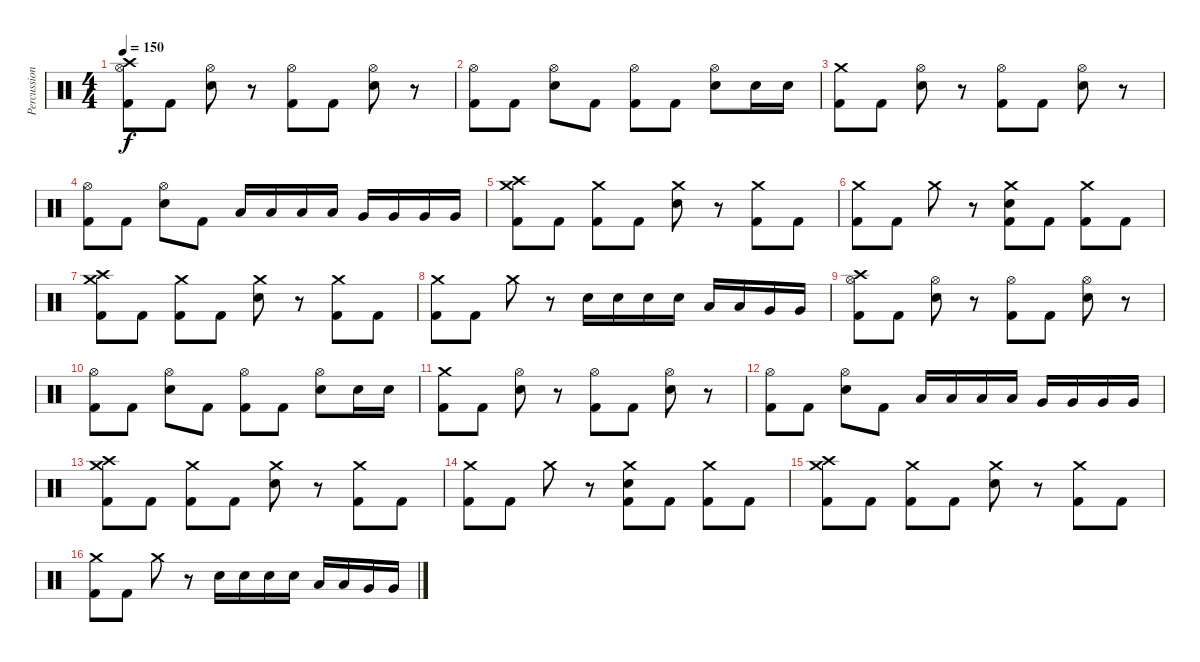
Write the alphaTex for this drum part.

\track ("Percussion" "Percussion") {instrument percussion}
\staff {score}
\articulation defaults
\ts (4 4)
\tempo 150
\clef neutral
\ks c
("Crash high (hit)" "Hi-Hat (open)" "Kick (hit) 2").8{dy f} "Kick (hit) 2".8 ("Hi-Hat (open)" "Electric Snare (hit)").8 r.8 ("Hi-Hat (open)" "Kick (hit) 2").8 "Kick (hit) 2".8 ("Hi-Hat (open)" "Electric Snare (hit)").8 r.8 |
("Hi-Hat (open)" "Kick (hit) 2").8 "Kick (hit) 2".8 ("Hi-Hat (open)" "Electric Snare (hit)").8 "Kick (hit) 2".8 ("Hi-Hat (open)" "Kick (hit) 2").8 "Kick (hit) 2".8 ("Hi-Hat (open)" "Electric Snare (hit)").8 "Electric Snare (hit)".16 "Electric Snare (hit)".16 |
("Crash medium (hit)" "Kick (hit) 2").8 "Kick (hit) 2".8 ("Hi-Hat (open)" "Electric Snare (hit)").8 r.8 ("Hi-Hat (open)" "Kick (hit) 2").8 "Kick (hit) 2".8 ("Hi-Hat (open)" "Electric Snare (hit)").8 r.8 |
("Hi-Hat (open)" "Kick (hit) 2").8 "Kick (hit) 2".8 ("Hi-Hat (open)" "Electric Snare (hit)").8 "Kick (hit) 2".8 "Low Tom (hit)".16 "Low Tom (hit)".16 "Low Tom (hit)".16 "Low Tom (hit)".16 "Very Low Tom (hit)".16 "Very Low Tom (hit)".16 "Very Low Tom (hit)".16 "Very Low Tom (hit)".16 |
("Crash medium (hit)" "Crash high (hit)" "Kick (hit) 2").8 "Kick (hit) 2".8 ("Crash medium (hit)" "Kick (hit) 2").8 "Kick (hit) 2".8 ("Crash medium (hit)" "Electric Snare (hit)").8 r.8 ("Crash medium (hit)" "Kick (hit) 2").8 "Kick (hit) 2".8 |
("Crash medium (hit)" "Kick (hit) 2").8 "Kick (hit) 2".8 "Crash medium (hit)".8 r.8 ("Crash medium (hit)" "Electric Snare (hit)" "Kick (hit) 2").8 "Kick (hit) 2".8 ("Crash medium (hit)" "Kick (hit) 2").8 "Kick (hit) 2".8 |
("Crash medium (hit)" "Crash high (hit)" "Kick (hit) 2").8 "Kick (hit) 2".8 ("Crash medium (hit)" "Kick (hit) 2").8 "Kick (hit) 2".8 ("Crash medium (hit)" "Electric Snare (hit)").8 r.8 ("Crash medium (hit)" "Kick (hit) 2").8 "Kick (hit) 2".8 |
("Crash medium (hit)" "Kick (hit) 2").8 "Kick (hit) 2".8 "Crash medium (hit)".8 r.8 "Electric Snare (hit)".16 "Electric Snare (hit)".16 "Electric Snare (hit)".16 "Electric Snare (hit)".16 "Low Tom (hit)".16 "Low Tom (hit)".16 "Very Low Tom (hit)".16 "Very Low Tom (hit)".16 |
("Crash high (hit)" "Hi-Hat (open)" "Kick (hit) 2").8 "Kick (hit) 2".8 ("Hi-Hat (open)" "Electric Snare (hit)").8 r.8 ("Hi-Hat (open)" "Kick (hit) 2").8 "Kick (hit) 2".8 ("Hi-Hat (open)" "Electric Snare (hit)").8 r.8 |
("Hi-Hat (open)" "Kick (hit) 2").8 "Kick (hit) 2".8 ("Hi-Hat (open)" "Electric Snare (hit)").8 "Kick (hit) 2".8 ("Hi-Hat (open)" "Kick (hit) 2").8 "Kick (hit) 2".8 ("Hi-Hat (open)" "Electric Snare (hit)").8 "Electric Snare (hit)".16 "Electric Snare (hit)".16 |
("Crash medium (hit)" "Kick (hit) 2").8 "Kick (hit) 2".8 ("Hi-Hat (open)" "Electric Snare (hit)").8 r.8 ("Hi-Hat (open)" "Kick (hit) 2").8 "Kick (hit) 2".8 ("Hi-Hat (open)" "Electric Snare (hit)").8 r.8 |
("Hi-Hat (open)" "Kick (hit) 2").8 "Kick (hit) 2".8 ("Hi-Hat (open)" "Electric Snare (hit)").8 "Kick (hit) 2".8 "Low Tom (hit)".16 "Low Tom (hit)".16 "Low Tom (hit)".16 "Low Tom (hit)".16 "Very Low Tom (hit)".16 "Very Low Tom (hit)".16 "Very Low Tom (hit)".16 "Very Low Tom (hit)".16 |
("Crash medium (hit)" "Crash high (hit)" "Kick (hit) 2").8 "Kick (hit) 2".8 ("Crash medium (hit)" "Kick (hit) 2").8 "Kick (hit) 2".8 ("Crash medium (hit)" "Electric Snare (hit)").8 r.8 ("Crash medium (hit)" "Kick (hit) 2").8 "Kick (hit) 2".8 |
("Crash medium (hit)" "Kick (hit) 2").8 "Kick (hit) 2".8 "Crash medium (hit)".8 r.8 ("Crash medium (hit)" "Electric Snare (hit)" "Kick (hit) 2").8 "Kick (hit) 2".8 ("Crash medium (hit)" "Kick (hit) 2").8 "Kick (hit) 2".8 |
("Crash medium (hit)" "Crash high (hit)" "Kick (hit) 2").8 "Kick (hit) 2".8 ("Crash medium (hit)" "Kick (hit) 2").8 "Kick (hit) 2".8 ("Crash medium (hit)" "Electric Snare (hit)").8 r.8 ("Crash medium (hit)" "Kick (hit) 2").8 "Kick (hit) 2".8 |
("Crash medium (hit)" "Kick (hit) 2").8 "Kick (hit) 2".8 "Crash medium (hit)".8 r.8 "Electric Snare (hit)".16 "Electric Snare (hit)".16 "Electric Snare (hit)".16 "Electric Snare (hit)".16 "Low Tom (hit)".16 "Low Tom (hit)".16 "Very Low Tom (hit)".16 "Very Low Tom (hit)".16
